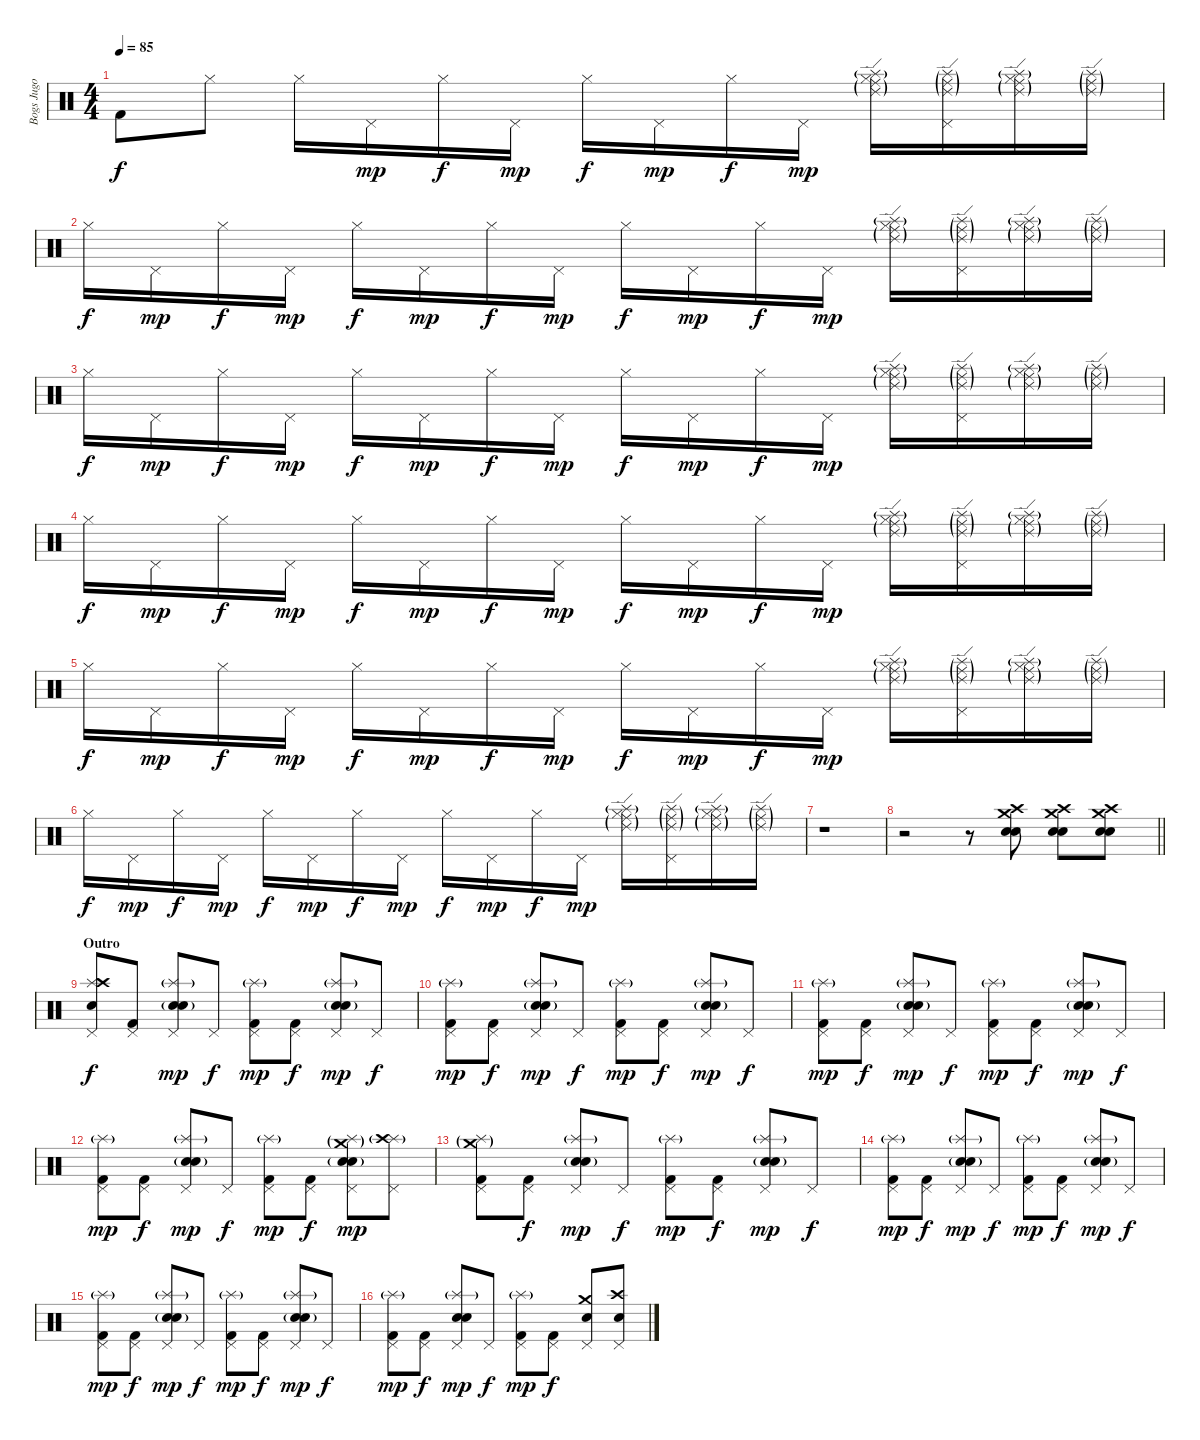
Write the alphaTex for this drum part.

\track ("Bogs Jugo" "Bogs Jugo") {instrument percussion}
\staff {score}
\articulation defaults
\ts (4 4)
\tempo 85
\clef neutral
\ks c "Kick (hit) 2".8{dy f} "Hi-Hat (closed)".8 "Hi-Hat (closed)".16 "Pedal Hi-Hat (hit)".16{dy mp} "Hi-Hat (closed)".16{dy f} "Pedal Hi-Hat (hit)".16{dy mp} "Hi-Hat (closed)".16{dy f} "Pedal Hi-Hat (hit)".16{dy mp} "Hi-Hat (closed)".16{dy f} "Pedal Hi-Hat (hit)".16{dy mp}
("Hi-Hat (closed)" "Ride (edge) 2"{g} "Ride (middle)"{g} "Splash (hit)"{g}).16 ("Pedal Hi-Hat (hit)" "Ride (edge) 2"{g} "Ride (middle)"{g} "Splash (hit)"{g}).16 ("Hi-Hat (closed)" "Ride (edge) 2"{g} "Ride (middle)"{g} "Splash (hit)"{g}).16 ("Ride (edge) 2"{g} "Ride (middle)"{g} "Splash (hit)"{g}).16 |
"Hi-Hat (closed)".16{dy f} "Pedal Hi-Hat (hit)".16{dy mp} "Hi-Hat (closed)".16{dy f} "Pedal Hi-Hat (hit)".16{dy mp} "Hi-Hat (closed)".16{dy f} "Pedal Hi-Hat (hit)".16{dy mp} "Hi-Hat (closed)".16{dy f} "Pedal Hi-Hat (hit)".16{dy mp} "Hi-Hat (closed)".16{dy f} "Pedal Hi-Hat (hit)".16{dy mp} "Hi-Hat (closed)".16{dy f} "Pedal Hi-Hat (hit)".16{dy mp} ("Hi-Hat (closed)" "Ride (edge) 2"{g} "Ride (middle)"{g} "Splash (hit)"{g}).16 ("Pedal Hi-Hat (hit)" "Ride (edge) 2"{g} "Ride (middle)"{g} "Splash (hit)"{g}).16 ("Hi-Hat (closed)" "Ride (edge) 2"{g} "Ride (middle)"{g} "Splash (hit)"{g}).16 ("Ride (edge) 2"{g} "Ride (middle)"{g} "Splash (hit)"{g}).16 |
"Hi-Hat (closed)".16{dy f} "Pedal Hi-Hat (hit)".16{dy mp} "Hi-Hat (closed)".16{dy f} "Pedal Hi-Hat (hit)".16{dy mp} "Hi-Hat (closed)".16{dy f} "Pedal Hi-Hat (hit)".16{dy mp} "Hi-Hat (closed)".16{dy f} "Pedal Hi-Hat (hit)".16{dy mp} "Hi-Hat (closed)".16{dy f} "Pedal Hi-Hat (hit)".16{dy mp} "Hi-Hat (closed)".16{dy f} "Pedal Hi-Hat (hit)".16{dy mp} ("Hi-Hat (closed)" "Ride (edge) 2"{g} "Ride (middle)"{g} "Splash (hit)"{g}).16 ("Pedal Hi-Hat (hit)" "Ride (edge) 2"{g} "Ride (middle)"{g} "Splash (hit)"{g}).16 ("Hi-Hat (closed)" "Ride (edge) 2"{g} "Ride (middle)"{g} "Splash (hit)"{g}).16 ("Ride (edge) 2"{g} "Ride (middle)"{g} "Splash (hit)"{g}).16 |
"Hi-Hat (closed)".16{dy f} "Pedal Hi-Hat (hit)".16{dy mp} "Hi-Hat (closed)".16{dy f} "Pedal Hi-Hat (hit)".16{dy mp} "Hi-Hat (closed)".16{dy f} "Pedal Hi-Hat (hit)".16{dy mp} "Hi-Hat (closed)".16{dy f} "Pedal Hi-Hat (hit)".16{dy mp} "Hi-Hat (closed)".16{dy f} "Pedal Hi-Hat (hit)".16{dy mp} "Hi-Hat (closed)".16{dy f} "Pedal Hi-Hat (hit)".16{dy mp} ("Hi-Hat (closed)" "Ride (edge) 2"{g} "Ride (middle)"{g} "Splash (hit)"{g}).16 ("Pedal Hi-Hat (hit)" "Ride (edge) 2"{g} "Ride (middle)"{g} "Splash (hit)"{g}).16 ("Hi-Hat (closed)" "Ride (edge) 2"{g} "Ride (middle)"{g} "Splash (hit)"{g}).16 ("Ride (edge) 2"{g} "Ride (middle)"{g} "Splash (hit)"{g}).16 |
"Hi-Hat (closed)".16{dy f} "Pedal Hi-Hat (hit)".16{dy mp} "Hi-Hat (closed)".16{dy f} "Pedal Hi-Hat (hit)".16{dy mp} "Hi-Hat (closed)".16{dy f} "Pedal Hi-Hat (hit)".16{dy mp} "Hi-Hat (closed)".16{dy f} "Pedal Hi-Hat (hit)".16{dy mp} "Hi-Hat (closed)".16{dy f} "Pedal Hi-Hat (hit)".16{dy mp} "Hi-Hat (closed)".16{dy f} "Pedal Hi-Hat (hit)".16{dy mp} ("Hi-Hat (closed)" "Ride (edge) 2"{g} "Ride (middle)"{g} "Splash (hit)"{g}).16 ("Pedal Hi-Hat (hit)" "Ride (edge) 2"{g} "Ride (middle)"{g} "Splash (hit)"{g}).16 ("Hi-Hat (closed)" "Ride (edge) 2"{g} "Ride (middle)"{g} "Splash (hit)"{g}).16 ("Ride (edge) 2"{g} "Ride (middle)"{g} "Splash (hit)"{g}).16 |
"Hi-Hat (closed)".16{dy f} "Pedal Hi-Hat (hit)".16{dy mp} "Hi-Hat (closed)".16{dy f} "Pedal Hi-Hat (hit)".16{dy mp} "Hi-Hat (closed)".16{dy f} "Pedal Hi-Hat (hit)".16{dy mp} "Hi-Hat (closed)".16{dy f} "Pedal Hi-Hat (hit)".16{dy mp} "Hi-Hat (closed)".16{dy f} "Pedal Hi-Hat (hit)".16{dy mp} "Hi-Hat (closed)".16{dy f} "Pedal Hi-Hat (hit)".16{dy mp} ("Hi-Hat (closed)" "Ride (edge) 2"{g} "Ride (middle)"{g} "Splash (hit)"{g}).16 ("Pedal Hi-Hat (hit)" "Ride (edge) 2"{g} "Ride (middle)"{g} "Splash (hit)"{g}).16 ("Hi-Hat (closed)" "Ride (edge) 2"{g} "Ride (middle)"{g} "Splash (hit)"{g}).16 ("Ride (edge) 2"{g} "Ride (middle)"{g} "Splash (hit)"{g}).16 |
r.1 |
\barLineRight lightlight
r.2 r.8 ("Crash medium (hit)" "Crash high (hit)" "Electric Snare (hit)" "Snare (hit) 2").8 ("Crash medium (hit)" "Crash high (hit)" "Electric Snare (hit)" "Snare (hit) 2").8 ("Crash medium (hit)" "Crash high (hit)" "Electric Snare (hit)" "Snare (hit) 2").8 |
\section ("" "Outro")
("Pedal Hi-Hat (hit)" "Electric Snare (hit)" "Splash (hit)" "Crash high (hit)").8{dy f} ("Pedal Hi-Hat (hit)" "Kick (hit) 2").8 ("Pedal Hi-Hat (hit)" "Electric Snare (hit)" "Snare (hit) 2"{g} "Splash (hit)"{g}).8{dy mp} "Pedal Hi-Hat (hit)".8{dy f} ("Pedal Hi-Hat (hit)" "Kick (hit) 2" "Splash (hit)"{g}).8{dy mp} ("Pedal Hi-Hat (hit)" "Kick (hit) 2").8{dy f} ("Pedal Hi-Hat (hit)" "Electric Snare (hit)" "Snare (hit) 2"{g} "Splash (hit)"{g}).8{dy mp} "Pedal Hi-Hat (hit)".8{dy f} |
("Pedal Hi-Hat (hit)" "Kick (hit) 2" "Splash (hit)"{g}).8{dy mp} ("Pedal Hi-Hat (hit)" "Kick (hit) 2").8{dy f} ("Pedal Hi-Hat (hit)" "Electric Snare (hit)" "Snare (hit) 2"{g} "Splash (hit)"{g}).8{dy mp} "Pedal Hi-Hat (hit)".8{dy f} ("Pedal Hi-Hat (hit)" "Kick (hit) 2" "Splash (hit)"{g}).8{dy mp} ("Pedal Hi-Hat (hit)" "Kick (hit) 2").8{dy f} ("Pedal Hi-Hat (hit)" "Electric Snare (hit)" "Snare (hit) 2"{g} "Splash (hit)"{g}).8{dy mp} "Pedal Hi-Hat (hit)".8{dy f} |
("Pedal Hi-Hat (hit)" "Kick (hit) 2" "Splash (hit)"{g}).8{dy mp} ("Pedal Hi-Hat (hit)" "Kick (hit) 2").8{dy f} ("Pedal Hi-Hat (hit)" "Electric Snare (hit)" "Snare (hit) 2"{g} "Splash (hit)"{g}).8{dy mp} "Pedal Hi-Hat (hit)".8{dy f} ("Pedal Hi-Hat (hit)" "Kick (hit) 2" "Splash (hit)"{g}).8{dy mp} ("Pedal Hi-Hat (hit)" "Kick (hit) 2").8{dy f} ("Pedal Hi-Hat (hit)" "Electric Snare (hit)" "Snare (hit) 2"{g} "Splash (hit)"{g}).8{dy mp} "Pedal Hi-Hat (hit)".8{dy f} |
("Pedal Hi-Hat (hit)" "Kick (hit) 2" "Splash (hit)"{g}).8{dy mp} ("Pedal Hi-Hat (hit)" "Kick (hit) 2").8{dy f} ("Pedal Hi-Hat (hit)" "Electric Snare (hit)" "Snare (hit) 2"{g} "Splash (hit)"{g}).8{dy mp} "Pedal Hi-Hat (hit)".8{dy f} ("Pedal Hi-Hat (hit)" "Kick (hit) 2" "Splash (hit)"{g}).8{dy mp} ("Pedal Hi-Hat (hit)" "Kick (hit) 2").8{dy f} ("Pedal Hi-Hat (hit)" "Electric Snare (hit)" "Snare (hit) 2"{g} "Splash (hit)"{g} "Crash medium (hit)"{g}).8{dy mp} ("Pedal Hi-Hat (hit)" "Splash (hit)"{g} "Crash high (hit)"{g}).8 |
("Pedal Hi-Hat (hit)" "Kick (hit) 2" "Splash (hit)"{g} "Crash medium (hit)"{g}).8 ("Pedal Hi-Hat (hit)" "Kick (hit) 2").8{dy f} ("Pedal Hi-Hat (hit)" "Electric Snare (hit)" "Snare (hit) 2"{g} "Splash (hit)"{g}).8{dy mp} "Pedal Hi-Hat (hit)".8{dy f} ("Pedal Hi-Hat (hit)" "Kick (hit) 2" "Splash (hit)"{g}).8{dy mp} ("Pedal Hi-Hat (hit)" "Kick (hit) 2").8{dy f} ("Pedal Hi-Hat (hit)" "Electric Snare (hit)" "Snare (hit) 2"{g} "Splash (hit)"{g}).8{dy mp} "Pedal Hi-Hat (hit)".8{dy f} |
("Pedal Hi-Hat (hit)" "Kick (hit) 2" "Splash (hit)"{g}).8{dy mp} ("Pedal Hi-Hat (hit)" "Kick (hit) 2").8{dy f} ("Pedal Hi-Hat (hit)" "Electric Snare (hit)" "Snare (hit) 2"{g} "Splash (hit)"{g}).8{dy mp} "Pedal Hi-Hat (hit)".8{dy f} ("Pedal Hi-Hat (hit)" "Kick (hit) 2" "Splash (hit)"{g}).8{dy mp} ("Pedal Hi-Hat (hit)" "Kick (hit) 2").8{dy f} ("Pedal Hi-Hat (hit)" "Electric Snare (hit)" "Snare (hit) 2"{g} "Splash (hit)"{g}).8{dy mp} "Pedal Hi-Hat (hit)".8{dy f} |
("Pedal Hi-Hat (hit)" "Kick (hit) 2" "Splash (hit)"{g}).8{dy mp} ("Pedal Hi-Hat (hit)" "Kick (hit) 2").8{dy f} ("Pedal Hi-Hat (hit)" "Electric Snare (hit)" "Snare (hit) 2"{g} "Splash (hit)"{g}).8{dy mp} "Pedal Hi-Hat (hit)".8{dy f} ("Pedal Hi-Hat (hit)" "Kick (hit) 2" "Splash (hit)"{g}).8{dy mp} ("Pedal Hi-Hat (hit)" "Kick (hit) 2").8{dy f} ("Pedal Hi-Hat (hit)" "Electric Snare (hit)" "Snare (hit) 2"{g} "Splash (hit)"{g}).8{dy mp} "Pedal Hi-Hat (hit)".8{dy f} |
("Pedal Hi-Hat (hit)" "Kick (hit) 2" "Splash (hit)"{g}).8{dy mp} ("Pedal Hi-Hat (hit)" "Kick (hit) 2").8{dy f} ("Pedal Hi-Hat (hit)" "Electric Snare (hit)" "Snare (hit) 2" "Splash (hit)"{g}).8{dy mp} "Pedal Hi-Hat (hit)".8{dy f} ("Pedal Hi-Hat (hit)" "Kick (hit) 2" "Splash (hit)"{g}).8{dy mp} ("Pedal Hi-Hat (hit)" "Kick (hit) 2").8{dy f} ("Pedal Hi-Hat (hit)" "Electric Snare (hit)" "Crash medium (hit)").8 ("Pedal Hi-Hat (hit)" "Electric Snare (hit)" "Crash high (hit)").8
